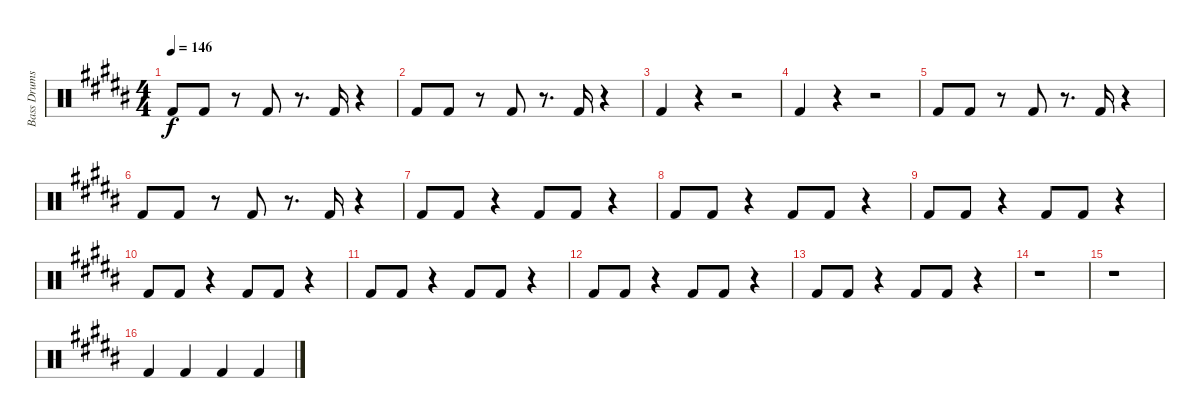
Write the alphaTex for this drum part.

\track ("Bass Drums" "Bass Drums") {instrument percussion}
\staff {score}
\articulation defaults
\ts (4 4)
\tempo 146
\clef neutral
\ks b "Kick (hit) 2".8{dy f} "Kick (hit) 2".8
r.8 "Kick (hit) 2".8 r.8{d} "Kick (hit) 2".16 r.4 |
"Kick (hit) 2".8 "Kick (hit) 2".8 r.8 "Kick (hit) 2".8 r.8{d} "Kick (hit) 2".16 r.4 |
"Kick (hit) 2".4 r.4 r.2 |
"Kick (hit) 2".4 r.4 r.2 |
"Kick (hit) 2".8 "Kick (hit) 2".8 r.8 "Kick (hit) 2".8 r.8{d} "Kick (hit) 2".16 r.4 |
"Kick (hit) 2".8 "Kick (hit) 2".8 r.8 "Kick (hit) 2".8 r.8{d} "Kick (hit) 2".16 r.4 |
"Kick (hit) 2".8 "Kick (hit) 2".8 r.4 "Kick (hit) 2".8 "Kick (hit) 2".8 r.4 |
"Kick (hit) 2".8 "Kick (hit) 2".8 r.4 "Kick (hit) 2".8 "Kick (hit) 2".8 r.4 |
"Kick (hit) 2".8 "Kick (hit) 2".8 r.4 "Kick (hit) 2".8 "Kick (hit) 2".8 r.4 |
"Kick (hit) 2".8 "Kick (hit) 2".8 r.4 "Kick (hit) 2".8 "Kick (hit) 2".8 r.4 |
"Kick (hit) 2".8 "Kick (hit) 2".8 r.4 "Kick (hit) 2".8 "Kick (hit) 2".8 r.4 |
"Kick (hit) 2".8 "Kick (hit) 2".8 r.4 "Kick (hit) 2".8 "Kick (hit) 2".8 r.4 |
"Kick (hit) 2".8 "Kick (hit) 2".8 r.4 "Kick (hit) 2".8 "Kick (hit) 2".8 r.4 |
r.1 |
r.1 |
"Kick (hit) 2".4 "Kick (hit) 2".4 "Kick (hit) 2".4 "Kick (hit) 2".4
